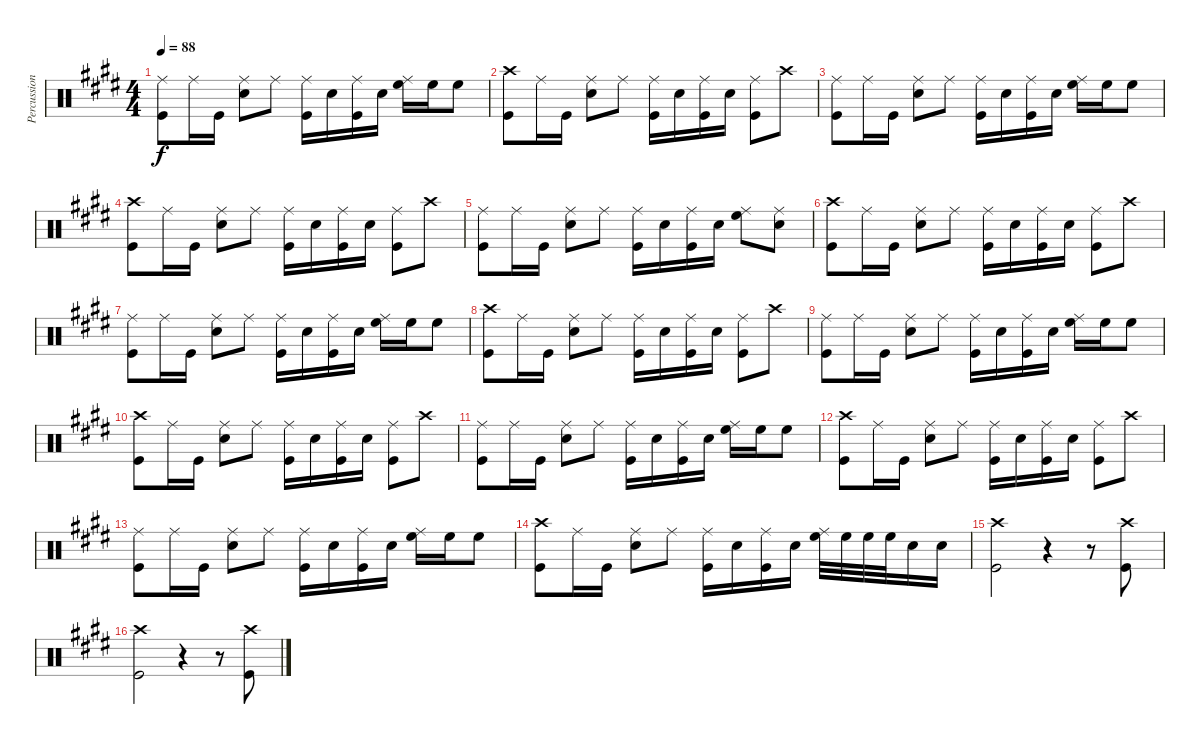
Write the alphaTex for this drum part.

\track ("Percussion" "Percussion") {instrument percussion}
\staff {score}
\articulation defaults
\ts (4 4)
\tempo 88
\clef neutral
\ks e
("Ride (middle)" "Kick (hit)").8{dy f} "Ride (middle)".16 "Kick (hit)".16 ("Ride (middle)" "Snare (hit) 2").8 "Ride (middle)".8 ("Ride (middle)" "Kick (hit)").16 "Snare (hit) 2".16 ("Ride (middle)" "Kick (hit)").16 "Snare (hit) 2".16 ("Ride (middle)" "High Floor Tom (hit)").16 "High Floor Tom (hit)".16 "High Floor Tom (hit)".8 |
("Crash high (hit)" "Kick (hit)").8 "Ride (middle)".16 "Kick (hit)".16 ("Ride (middle)" "Snare (hit) 2").8 "Ride (middle)".8 ("Ride (middle)" "Kick (hit)").16 "Snare (hit) 2".16 ("Ride (middle)" "Kick (hit)").16 "Snare (hit) 2".16 ("Ride (middle)" "Kick (hit)").8 "Crash high (hit)".8 |
("Ride (middle)" "Kick (hit)").8 "Ride (middle)".16 "Kick (hit)".16 ("Ride (middle)" "Snare (hit) 2").8 "Ride (middle)".8 ("Ride (middle)" "Kick (hit)").16 "Snare (hit) 2".16 ("Ride (middle)" "Kick (hit)").16 "Snare (hit) 2".16 ("Ride (middle)" "High Floor Tom (hit)").16 "High Floor Tom (hit)".16 "High Floor Tom (hit)".8 |
("Crash high (hit)" "Kick (hit)").8 "Ride (middle)".16 "Kick (hit)".16 ("Ride (middle)" "Snare (hit) 2").8 "Ride (middle)".8 ("Ride (middle)" "Kick (hit)").16 "Snare (hit) 2".16 ("Ride (middle)" "Kick (hit)").16 "Snare (hit) 2".16 ("Ride (middle)" "Kick (hit)").8 "Crash high (hit)".8 |
("Ride (middle)" "Kick (hit)").8 "Ride (middle)".16 "Kick (hit)".16 ("Ride (middle)" "Snare (hit) 2").8 "Ride (middle)".8 ("Ride (middle)" "Kick (hit)").16 "Snare (hit) 2".16 ("Ride (middle)" "Kick (hit)").16 "Snare (hit) 2".16 ("Ride (middle)" "High Floor Tom (hit)").8 ("Ride (middle)" "Snare (hit) 2").8 |
("Crash high (hit)" "Kick (hit)").8 "Ride (middle)".16 "Kick (hit)".16 ("Ride (middle)" "Snare (hit) 2").8 "Ride (middle)".8 ("Ride (middle)" "Kick (hit)").16 "Snare (hit) 2".16 ("Ride (middle)" "Kick (hit)").16 "Snare (hit) 2".16 ("Ride (middle)" "Kick (hit)").8 "Crash high (hit)".8 |
("Ride (middle)" "Kick (hit)").8 "Ride (middle)".16 "Kick (hit)".16 ("Ride (middle)" "Snare (hit) 2").8 "Ride (middle)".8 ("Ride (middle)" "Kick (hit)").16 "Snare (hit) 2".16 ("Ride (middle)" "Kick (hit)").16 "Snare (hit) 2".16 ("Ride (middle)" "High Floor Tom (hit)").16 "High Floor Tom (hit)".16 "High Floor Tom (hit)".8 |
("Crash high (hit)" "Kick (hit)").8 "Ride (middle)".16 "Kick (hit)".16 ("Ride (middle)" "Snare (hit) 2").8 "Ride (middle)".8 ("Ride (middle)" "Kick (hit)").16 "Snare (hit) 2".16 ("Ride (middle)" "Kick (hit)").16 "Snare (hit) 2".16 ("Ride (middle)" "Kick (hit)").8 "Crash high (hit)".8 |
("Ride (middle)" "Kick (hit)").8 "Ride (middle)".16 "Kick (hit)".16 ("Ride (middle)" "Snare (hit) 2").8 "Ride (middle)".8 ("Ride (middle)" "Kick (hit)").16 "Snare (hit) 2".16 ("Ride (middle)" "Kick (hit)").16 "Snare (hit) 2".16 ("Ride (middle)" "High Floor Tom (hit)").16 "High Floor Tom (hit)".16 "High Floor Tom (hit)".8 |
("Crash high (hit)" "Kick (hit)").8 "Ride (middle)".16 "Kick (hit)".16 ("Ride (middle)" "Snare (hit) 2").8 "Ride (middle)".8 ("Ride (middle)" "Kick (hit)").16 "Snare (hit) 2".16 ("Ride (middle)" "Kick (hit)").16 "Snare (hit) 2".16 ("Ride (middle)" "Kick (hit)").8 "Crash high (hit)".8 |
("Ride (middle)" "Kick (hit)").8 "Ride (middle)".16 "Kick (hit)".16 ("Ride (middle)" "Snare (hit) 2").8 "Ride (middle)".8 ("Ride (middle)" "Kick (hit)").16 "Snare (hit) 2".16 ("Ride (middle)" "Kick (hit)").16 "Snare (hit) 2".16 ("Ride (middle)" "High Floor Tom (hit)").16 "High Floor Tom (hit)".16 "High Floor Tom (hit)".8 |
("Crash high (hit)" "Kick (hit)").8 "Ride (middle)".16 "Kick (hit)".16 ("Ride (middle)" "Snare (hit) 2").8 "Ride (middle)".8 ("Ride (middle)" "Kick (hit)").16 "Snare (hit) 2".16 ("Ride (middle)" "Kick (hit)").16 "Snare (hit) 2".16 ("Ride (middle)" "Kick (hit)").8 "Crash high (hit)".8 |
("Ride (middle)" "Kick (hit)").8 "Ride (middle)".16 "Kick (hit)".16 ("Ride (middle)" "Snare (hit) 2").8 "Ride (middle)".8 ("Ride (middle)" "Kick (hit)").16 "Snare (hit) 2".16 ("Ride (middle)" "Kick (hit)").16 "Snare (hit) 2".16 ("Ride (middle)" "High Floor Tom (hit)").16 "High Floor Tom (hit)".16 "High Floor Tom (hit)".8 |
("Crash high (hit)" "Kick (hit)").8 "Ride (middle)".16 "Kick (hit)".16 ("Ride (middle)" "Snare (hit) 2").8 "Ride (middle)".8 ("Ride (middle)" "Kick (hit)").16 "Snare (hit) 2".16 ("Ride (middle)" "Kick (hit)").16 "Snare (hit) 2".16 ("Ride (middle)" "High Floor Tom (hit)").32 "High Floor Tom (hit)".32 "High Floor Tom (hit)".32 "High Floor Tom (hit)".32 "Snare (hit) 2".16 "Snare (hit) 2".16 |
("Crash high (hit)" "Kick (hit)").2 r.4 r.8 ("Crash high (hit)" "Kick (hit)").8 |
("Crash high (hit)" "Kick (hit)").2 r.4 r.8 ("Crash high (hit)" "Kick (hit)").8
